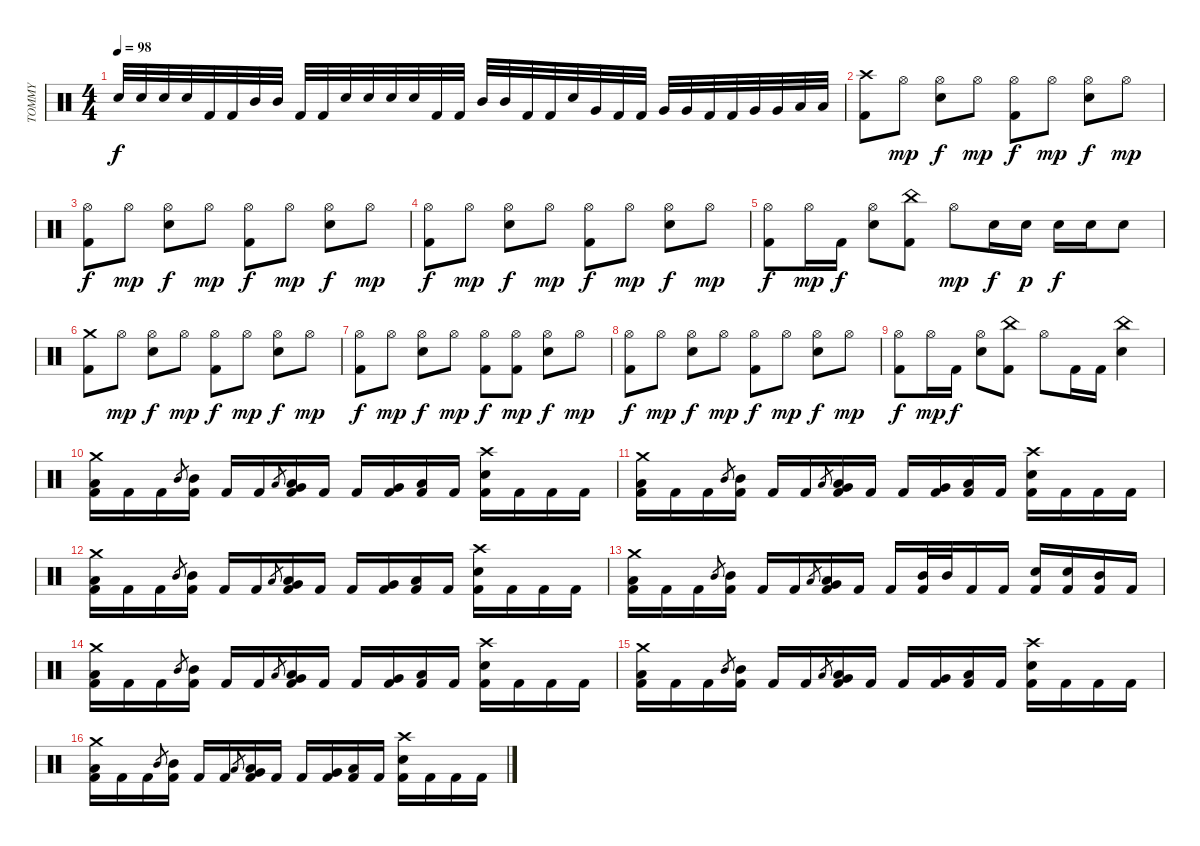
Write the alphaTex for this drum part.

\track ("TOMMY" "TOMMY") {instrument percussion}
\staff {score}
\articulation defaults
\ts (4 4)
\tempo 98
\clef neutral
\ks c "Snare (hit) 2".32{dy f} "Snare (hit) 2".32 "Snare (hit) 2".32 "Snare (hit) 2".32 "Kick (hit) 2".32 "Kick (hit) 2".32 "Mid Tom (hit)".32 "Mid Tom (hit)".32 "Kick (hit) 2".32 "Kick (hit) 2".32 "Snare (hit) 2".32 "Snare (hit) 2".32 "Snare (hit) 2".32 "Snare (hit) 2".32 "Kick (hit) 2".32 "Kick (hit) 2".32 "Mid Tom (hit)".32 "Mid Tom (hit)".32 "Kick (hit) 2".32 "Kick (hit) 2".32 "Snare (hit) 2".32 "Very Low Tom (hit)".32 "Kick (hit) 2".32 "Kick (hit) 2".32 "Very Low Tom (hit)".32 "Very Low Tom (hit)".32 "Kick (hit) 2".32 "Kick (hit) 2".32 "Very Low Tom (hit)".32 "Very Low Tom (hit)".32 "Low Floor Tom (hit)".32 "Low Floor Tom (hit)".32
|
("Kick (hit) 2" "Crash high (hit)").8 "Hi-Hat (open)".8{dy mp} ("Snare (hit) 2" "Hi-Hat (open)").8{dy f} "Hi-Hat (open)".8{dy mp} ("Kick (hit) 2" "Hi-Hat (open)").8{dy f} "Hi-Hat (open)".8{dy mp} ("Snare (hit) 2" "Hi-Hat (open)").8{dy f} "Hi-Hat (open)".8{dy mp} |
("Kick (hit) 2" "Hi-Hat (open)").8{dy f} "Hi-Hat (open)".8{dy mp} ("Snare (hit) 2" "Hi-Hat (open)").8{dy f} "Hi-Hat (open)".8{dy mp} ("Kick (hit) 2" "Hi-Hat (open)").8{dy f} "Hi-Hat (open)".8{dy mp} ("Snare (hit) 2" "Hi-Hat (open)").8{dy f} "Hi-Hat (open)".8{dy mp} |
("Kick (hit) 2" "Hi-Hat (open)").8{dy f} "Hi-Hat (open)".8{dy mp} ("Snare (hit) 2" "Hi-Hat (open)").8{dy f} "Hi-Hat (open)".8{dy mp} ("Kick (hit) 2" "Hi-Hat (open)").8{dy f} "Hi-Hat (open)".8{dy mp} ("Snare (hit) 2" "Hi-Hat (open)").8{dy f} "Hi-Hat (open)".8{dy mp} |
("Kick (hit) 2" "Hi-Hat (open)").8{dy f} "Hi-Hat (open)".16{dy mp} "Kick (hit) 2".16{dy f} ("Snare (hit) 2" "Hi-Hat (open)").8 ("Kick (hit) 2" "China (hit)").8 "Hi-Hat (open)".8{dy mp} "Snare (hit) 2".16{dy f} "Snare (hit) 2".16{dy p} "Snare (hit) 2".16{dy f} "Snare (hit) 2".16 "Snare (hit) 2".8 |
("Kick (hit) 2" "Crash medium (hit)").8 "Hi-Hat (open)".8{dy mp} ("Snare (hit) 2" "Hi-Hat (open)").8{dy f} "Hi-Hat (open)".8{dy mp} ("Kick (hit) 2" "Hi-Hat (open)").8{dy f} "Hi-Hat (open)".8{dy mp} ("Snare (hit) 2" "Hi-Hat (open)").8{dy f} "Hi-Hat (open)".8{dy mp} |
("Kick (hit) 2" "Hi-Hat (open)").8{dy f} "Hi-Hat (open)".8{dy mp} ("Snare (hit) 2" "Hi-Hat (open)").8{dy f} "Hi-Hat (open)".8{dy mp} ("Kick (hit) 2" "Hi-Hat (open)").8{dy f} ("Kick (hit) 2" "Hi-Hat (open)").8{dy mp} ("Snare (hit) 2" "Hi-Hat (open)").8{dy f} "Hi-Hat (open)".8{dy mp} |
("Kick (hit) 2" "Hi-Hat (open)").8{dy f} "Hi-Hat (open)".8{dy mp} ("Snare (hit) 2" "Hi-Hat (open)").8{dy f} "Hi-Hat (open)".8{dy mp} ("Kick (hit) 2" "Hi-Hat (open)").8{dy f} "Hi-Hat (open)".8{dy mp} ("Snare (hit) 2" "Hi-Hat (open)").8{dy f} "Hi-Hat (open)".8{dy mp} |
("Kick (hit) 2" "Hi-Hat (open)").8{dy f} "Hi-Hat (open)".16{dy mp} "Kick (hit) 2".16{dy f} ("Snare (hit) 2" "Hi-Hat (open)").8 ("Kick (hit) 2" "China (hit)").8 "Hi-Hat (open)".8 "Kick (hit) 2".16 "Kick (hit) 2".16 ("Snare (hit) 2" "China (hit)").4 |
("Kick (hit) 2" "Crash medium (hit)" "Low Floor Tom (hit)").16 "Kick (hit) 2".16 "Kick (hit) 2".16 "Mid Tom (hit)".8{gr} ("Kick (hit) 2" "Mid Tom (hit)").16 "Kick (hit) 2".16 "Kick (hit) 2".16 "Low Floor Tom (hit)".8{gr} ("Kick (hit) 2" "Very Low Tom (hit)" "Low Floor Tom (hit)").16 "Kick (hit) 2".16 "Kick (hit) 2".16 ("Kick (hit) 2" "Very Low Tom (hit)").16 ("Kick (hit) 2" "Low Floor Tom (hit)").16 "Kick (hit) 2".16 ("Snare (hit) 2" "Kick (hit) 2" "Crash high (hit)").16 "Kick (hit) 2".16 "Kick (hit) 2".16 "Kick (hit) 2".16 |
("Kick (hit) 2" "Crash medium (hit)" "Low Floor Tom (hit)").16 "Kick (hit) 2".16 "Kick (hit) 2".16 "Mid Tom (hit)".8{gr} ("Kick (hit) 2" "Mid Tom (hit)").16 "Kick (hit) 2".16 "Kick (hit) 2".16 "Low Floor Tom (hit)".8{gr} ("Kick (hit) 2" "Very Low Tom (hit)" "Low Floor Tom (hit)").16 "Kick (hit) 2".16 "Kick (hit) 2".16 ("Kick (hit) 2" "Very Low Tom (hit)").16 ("Kick (hit) 2" "Low Floor Tom (hit)").16 "Kick (hit) 2".16 ("Snare (hit) 2" "Kick (hit) 2" "Crash high (hit)").16 "Kick (hit) 2".16 "Kick (hit) 2".16 "Kick (hit) 2".16 |
("Kick (hit) 2" "Crash medium (hit)" "Low Floor Tom (hit)").16 "Kick (hit) 2".16 "Kick (hit) 2".16 "Mid Tom (hit)".8{gr} ("Kick (hit) 2" "Mid Tom (hit)").16 "Kick (hit) 2".16 "Kick (hit) 2".16 "Low Floor Tom (hit)".8{gr} ("Kick (hit) 2" "Very Low Tom (hit)" "Low Floor Tom (hit)").16 "Kick (hit) 2".16 "Kick (hit) 2".16 ("Kick (hit) 2" "Very Low Tom (hit)").16 ("Kick (hit) 2" "Low Floor Tom (hit)").16 "Kick (hit) 2".16 ("Snare (hit) 2" "Kick (hit) 2" "Crash high (hit)").16 "Kick (hit) 2".16 "Kick (hit) 2".16 "Kick (hit) 2".16 |
("Kick (hit) 2" "Crash medium (hit)" "Low Floor Tom (hit)").16 "Kick (hit) 2".16 "Kick (hit) 2".16 "Mid Tom (hit)".8{gr} ("Kick (hit) 2" "Mid Tom (hit)").16 "Kick (hit) 2".16 "Kick (hit) 2".16 "Low Floor Tom (hit)".8{gr} ("Kick (hit) 2" "Very Low Tom (hit)" "Low Floor Tom (hit)").16 "Kick (hit) 2".16 "Kick (hit) 2".16 ("Kick (hit) 2" "Mid Tom (hit)").32 "Mid Tom (hit)".32 "Kick (hit) 2".16 "Kick (hit) 2".16 ("Snare (hit) 2" "Kick (hit) 2").16 ("Snare (hit) 2" "Kick (hit) 2").16 ("Kick (hit) 2" "Mid Tom (hit)").16 "Kick (hit) 2".16 |
("Kick (hit) 2" "Crash medium (hit)" "Low Floor Tom (hit)").16 "Kick (hit) 2".16 "Kick (hit) 2".16 "Mid Tom (hit)".8{gr} ("Kick (hit) 2" "Mid Tom (hit)").16 "Kick (hit) 2".16 "Kick (hit) 2".16 "Low Floor Tom (hit)".8{gr} ("Kick (hit) 2" "Very Low Tom (hit)" "Low Floor Tom (hit)").16 "Kick (hit) 2".16 "Kick (hit) 2".16 ("Kick (hit) 2" "Very Low Tom (hit)").16 ("Kick (hit) 2" "Low Floor Tom (hit)").16 "Kick (hit) 2".16 ("Snare (hit) 2" "Kick (hit) 2" "Crash high (hit)").16 "Kick (hit) 2".16 "Kick (hit) 2".16 "Kick (hit) 2".16 |
("Kick (hit) 2" "Crash medium (hit)" "Low Floor Tom (hit)").16 "Kick (hit) 2".16 "Kick (hit) 2".16 "Mid Tom (hit)".8{gr} ("Kick (hit) 2" "Mid Tom (hit)").16 "Kick (hit) 2".16 "Kick (hit) 2".16 "Low Floor Tom (hit)".8{gr} ("Kick (hit) 2" "Very Low Tom (hit)" "Low Floor Tom (hit)").16 "Kick (hit) 2".16 "Kick (hit) 2".16 ("Kick (hit) 2" "Very Low Tom (hit)").16 ("Kick (hit) 2" "Low Floor Tom (hit)").16 "Kick (hit) 2".16 ("Snare (hit) 2" "Kick (hit) 2" "Crash high (hit)").16 "Kick (hit) 2".16 "Kick (hit) 2".16 "Kick (hit) 2".16 |
("Kick (hit) 2" "Crash medium (hit)" "Low Floor Tom (hit)").16 "Kick (hit) 2".16 "Kick (hit) 2".16 "Mid Tom (hit)".8{gr} ("Kick (hit) 2" "Mid Tom (hit)").16 "Kick (hit) 2".16 "Kick (hit) 2".16 "Low Floor Tom (hit)".8{gr} ("Kick (hit) 2" "Very Low Tom (hit)" "Low Floor Tom (hit)").16 "Kick (hit) 2".16 "Kick (hit) 2".16 ("Kick (hit) 2" "Very Low Tom (hit)").16 ("Kick (hit) 2" "Low Floor Tom (hit)").16 "Kick (hit) 2".16 ("Snare (hit) 2" "Kick (hit) 2" "Crash high (hit)").16 "Kick (hit) 2".16 "Kick (hit) 2".16 "Kick (hit) 2".16
